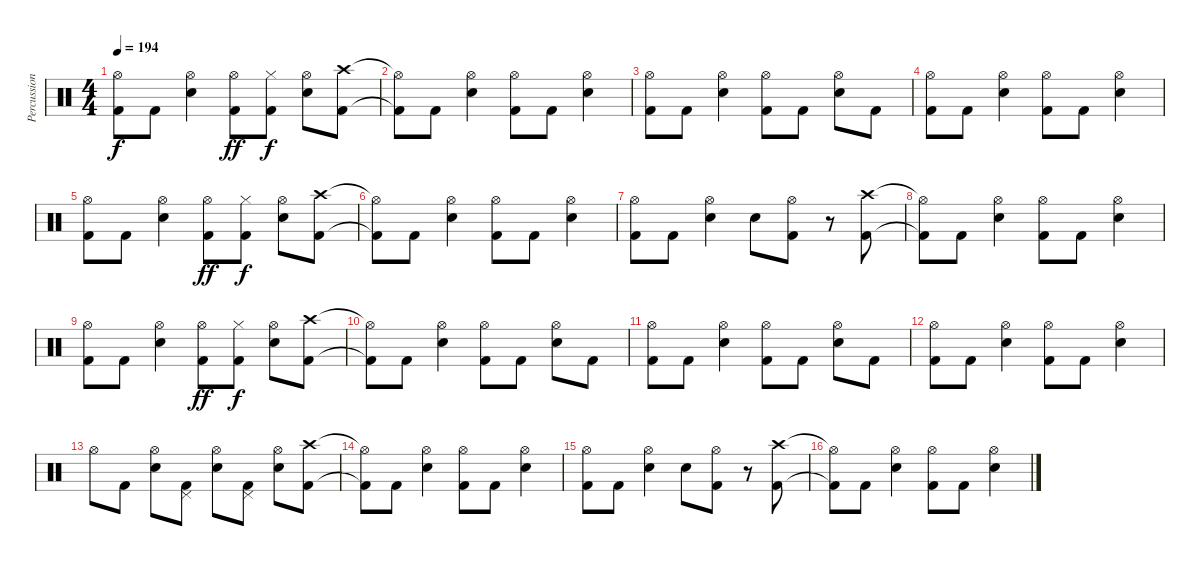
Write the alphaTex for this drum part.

\track ("Percussion" "Percussion") {instrument percussion}
\staff {score}
\articulation defaults
\ts (4 4)
\tempo 194
\clef neutral
\ks c
("Hi-Hat (open)" "Kick (hit) 2").8{dy f} "Kick (hit) 2".8 ("Hi-Hat (open)" "Electric Snare (hit)").4 ("Hi-Hat (open)" "Kick (hit) 2").8{dy ff} ("Hi-Hat (closed)" "Kick (hit) 2").8{dy f} ("Hi-Hat (open)" "Electric Snare (hit)").8 ("Crash high (hit)" "Kick (hit) 2").8 |
("Hi-Hat (open)"{t} "Kick (hit) 2"{t}).8 "Kick (hit) 2".8 ("Hi-Hat (open)" "Electric Snare (hit)").4 ("Hi-Hat (open)" "Kick (hit) 2").8 "Kick (hit) 2".8 ("Hi-Hat (open)" "Electric Snare (hit)").4 |
("Hi-Hat (open)" "Kick (hit) 2").8 "Kick (hit) 2".8 ("Hi-Hat (open)" "Electric Snare (hit)").4 ("Hi-Hat (open)" "Kick (hit) 2").8 "Kick (hit) 2".8 ("Hi-Hat (open)" "Electric Snare (hit)").8 "Kick (hit) 2".8 |
("Hi-Hat (open)" "Kick (hit) 2").8 "Kick (hit) 2".8 ("Hi-Hat (open)" "Electric Snare (hit)").4 ("Hi-Hat (open)" "Kick (hit) 2").8 "Kick (hit) 2".8 ("Hi-Hat (open)" "Electric Snare (hit)").4 |
("Hi-Hat (open)" "Kick (hit) 2").8 "Kick (hit) 2".8 ("Hi-Hat (open)" "Electric Snare (hit)").4 ("Hi-Hat (open)" "Kick (hit) 2").8{dy ff} ("Hi-Hat (closed)" "Kick (hit) 2").8{dy f} ("Hi-Hat (open)" "Electric Snare (hit)").8 ("Crash high (hit)" "Kick (hit) 2").8 |
("Hi-Hat (open)"{t} "Kick (hit) 2"{t}).8 "Kick (hit) 2".8 ("Hi-Hat (open)" "Electric Snare (hit)").4 ("Hi-Hat (open)" "Kick (hit) 2").8 "Kick (hit) 2".8 ("Hi-Hat (open)" "Electric Snare (hit)").4 |
("Hi-Hat (open)" "Kick (hit) 2").8 "Kick (hit) 2".8 ("Hi-Hat (open)" "Electric Snare (hit)").4 "Electric Snare (hit)".8 ("Hi-Hat (open)" "Kick (hit) 2").8 r.8 ("Crash high (hit)" "Kick (hit) 2").8 |
("Hi-Hat (open)"{t} "Kick (hit) 2"{t}).8 "Kick (hit) 2".8 ("Hi-Hat (open)" "Electric Snare (hit)").4 ("Hi-Hat (open)" "Kick (hit) 2").8 "Kick (hit) 2".8 ("Hi-Hat (open)" "Electric Snare (hit)").4 |
("Hi-Hat (open)" "Kick (hit) 2").8 "Kick (hit) 2".8 ("Hi-Hat (open)" "Electric Snare (hit)").4 ("Hi-Hat (open)" "Kick (hit) 2").8{dy ff} ("Hi-Hat (closed)" "Kick (hit) 2").8{dy f} ("Hi-Hat (open)" "Electric Snare (hit)").8 ("Crash high (hit)" "Kick (hit) 2").8 |
("Hi-Hat (open)"{t} "Kick (hit) 2"{t}).8 "Kick (hit) 2".8 ("Hi-Hat (open)" "Electric Snare (hit)").4 ("Hi-Hat (open)" "Kick (hit) 2").8 "Kick (hit) 2".8 ("Hi-Hat (open)" "Electric Snare (hit)").8 "Kick (hit) 2".8 |
("Hi-Hat (open)" "Kick (hit) 2").8 "Kick (hit) 2".8 ("Hi-Hat (open)" "Electric Snare (hit)").4 ("Hi-Hat (open)" "Kick (hit) 2").8 "Kick (hit) 2".8 ("Hi-Hat (open)" "Electric Snare (hit)").8 "Kick (hit) 2".8 |
("Hi-Hat (open)" "Kick (hit) 2").8 "Kick (hit) 2".8 ("Hi-Hat (open)" "Electric Snare (hit)").4 ("Hi-Hat (open)" "Kick (hit) 2").8 "Kick (hit) 2".8 ("Hi-Hat (open)" "Electric Snare (hit)").4 |
"Hi-Hat (open)".8 "Kick (hit) 2".8 ("Hi-Hat (open)" "Electric Snare (hit)").8 ("Pedal Hi-Hat (hit)" "Kick (hit) 2").8 ("Hi-Hat (open)" "Electric Snare (hit)").8 ("Pedal Hi-Hat (hit)" "Kick (hit) 2").8 ("Hi-Hat (open)" "Electric Snare (hit)").8 ("Crash high (hit)" "Kick (hit) 2").8 |
("Hi-Hat (open)"{t} "Kick (hit) 2"{t}).8 "Kick (hit) 2".8 ("Hi-Hat (open)" "Electric Snare (hit)").4 ("Hi-Hat (open)" "Kick (hit) 2").8 "Kick (hit) 2".8 ("Hi-Hat (open)" "Electric Snare (hit)").4 |
("Hi-Hat (open)" "Kick (hit) 2").8 "Kick (hit) 2".8 ("Hi-Hat (open)" "Electric Snare (hit)").4 "Electric Snare (hit)".8 ("Hi-Hat (open)" "Kick (hit) 2").8 r.8 ("Crash high (hit)" "Kick (hit) 2").8 |
("Hi-Hat (open)"{t} "Kick (hit) 2"{t}).8 "Kick (hit) 2".8 ("Hi-Hat (open)" "Electric Snare (hit)").4 ("Hi-Hat (open)" "Kick (hit) 2").8 "Kick (hit) 2".8 ("Hi-Hat (open)" "Electric Snare (hit)").4
